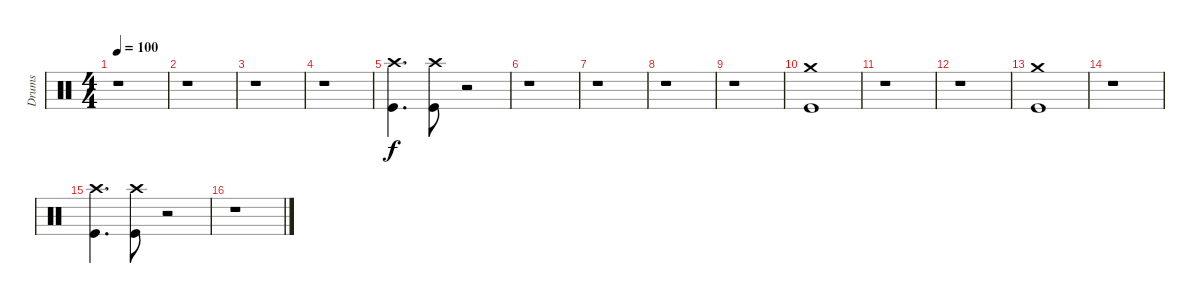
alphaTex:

\track ("Drums" "Drums") {instrument percussion}
\staff {score}
\articulation defaults
\ts (4 4)
\tempo 100
\clef neutral
\ks c
r.1{dy f} |
r.1 |
r.1 |
r.1 |
("Crash high (hit)" "Kick (hit)").4{d} ("Crash high (hit)" "Kick (hit)").8 r.2 |
r.1 |
r.1 |
r.1 |
r.1 |
("Crash medium (hit)" "Kick (hit)").1 |
r.1 |
r.1 |
("Crash medium (hit)" "Kick (hit)").1 |
r.1 |
("Crash high (hit)" "Kick (hit)").4{d} ("Crash high (hit)" "Kick (hit)").8 r.2 |
r.1
